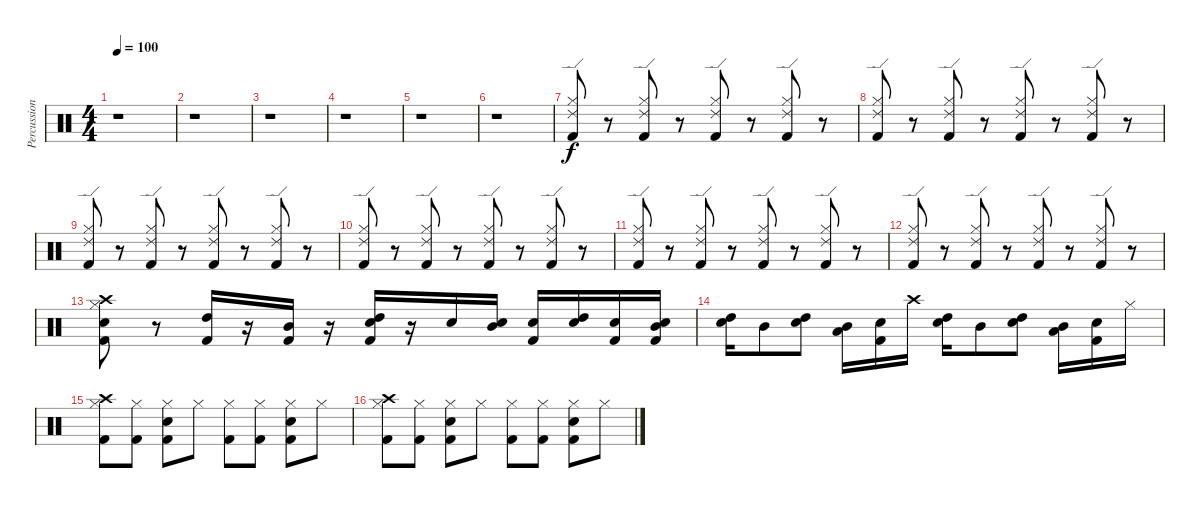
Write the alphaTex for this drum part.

\track ("Percussion" "Percussion") {instrument percussion}
\staff {score}
\articulation defaults
\ts (4 4)
\tempo 100
\clef neutral
\ks c
r.1{dy f} |
r.1 |
r.1 |
r.1 |
r.1 |
r.1 |
("Kick (hit) 2" "Hi-Hat (closed)" "Ride (edge) 2").8 r.8 ("Kick (hit) 2" "Hi-Hat (closed)" "Ride (edge) 2").8 r.8 ("Kick (hit) 2" "Hi-Hat (closed)" "Ride (edge) 2").8 r.8 ("Kick (hit) 2" "Hi-Hat (closed)" "Ride (edge) 2").8 r.8 |
("Kick (hit) 2" "Hi-Hat (closed)" "Ride (edge) 2").8 r.8 ("Kick (hit) 2" "Hi-Hat (closed)" "Ride (edge) 2").8 r.8 ("Kick (hit) 2" "Hi-Hat (closed)" "Ride (edge) 2").8 r.8 ("Kick (hit) 2" "Hi-Hat (closed)" "Ride (edge) 2").8 r.8 |
("Kick (hit) 2" "Hi-Hat (closed)" "Ride (edge) 2").8 r.8 ("Kick (hit) 2" "Hi-Hat (closed)" "Ride (edge) 2").8 r.8 ("Kick (hit) 2" "Hi-Hat (closed)" "Ride (edge) 2").8 r.8 ("Kick (hit) 2" "Hi-Hat (closed)" "Ride (edge) 2").8 r.8 |
("Kick (hit) 2" "Hi-Hat (closed)" "Ride (edge) 2").8 r.8 ("Kick (hit) 2" "Hi-Hat (closed)" "Ride (edge) 2").8 r.8 ("Kick (hit) 2" "Hi-Hat (closed)" "Ride (edge) 2").8 r.8 ("Kick (hit) 2" "Hi-Hat (closed)" "Ride (edge) 2").8 r.8 |
("Kick (hit) 2" "Hi-Hat (closed)" "Ride (edge) 2").8 r.8 ("Kick (hit) 2" "Hi-Hat (closed)" "Ride (edge) 2").8 r.8 ("Kick (hit) 2" "Hi-Hat (closed)" "Ride (edge) 2").8 r.8 ("Kick (hit) 2" "Hi-Hat (closed)" "Ride (edge) 2").8 r.8 |
("Kick (hit) 2" "Hi-Hat (closed)" "Ride (edge) 2").8 r.8 ("Kick (hit) 2" "Hi-Hat (closed)" "Ride (edge) 2").8 r.8 ("Kick (hit) 2" "Hi-Hat (closed)" "Ride (edge) 2").8 r.8 ("Kick (hit) 2" "Hi-Hat (closed)" "Ride (edge) 2").8 r.8 |
("Kick (hit) 2" "Snare (hit) 2" "Hi-Hat (closed)" "Crash high (hit)").8 r.8 ("Kick (hit) 2" "High Tom (hit)").16 r.16 ("Kick (hit) 2" "Mid Tom (hit)").16 r.16 ("Kick (hit) 2" "Snare (hit) 2" "High Tom (hit)").16 r.16 "Snare (hit) 2".16 ("Snare (hit) 2" "Mid Tom (hit)").16 ("Kick (hit) 2" "Snare (hit) 2").16 ("Snare (hit) 2" "High Tom (hit)").16 ("Kick (hit) 2" "Snare (hit) 2").16 ("Kick (hit) 2" "Snare (hit) 2" "Mid Tom (hit)").16 |
("High Tom (hit)" "Snare (hit) 2").16 "Mid Tom (hit)".8 ("High Tom (hit)" "Snare (hit) 2").8 ("Mid Tom (hit)" "Low Floor Tom (hit)").16 ("Kick (hit) 2" "Snare (hit) 2").16 "Crash high (hit)".16 ("High Tom (hit)" "Snare (hit) 2").16 "Mid Tom (hit)".8 ("High Tom (hit)" "Snare (hit) 2").8 ("Mid Tom (hit)" "Low Floor Tom (hit)").16 ("Kick (hit) 2" "Snare (hit) 2").16 "Hi-Hat (closed)".16 |
("Kick (hit) 2" "Hi-Hat (closed)" "Crash high (hit)").8 ("Kick (hit) 2" "Hi-Hat (closed)").8 ("Kick (hit) 2" "Snare (hit) 2" "Hi-Hat (closed)").8 "Hi-Hat (closed)".8 ("Kick (hit) 2" "Hi-Hat (closed)").8 ("Kick (hit) 2" "Hi-Hat (closed)").8 ("Kick (hit) 2" "Snare (hit) 2" "Hi-Hat (closed)").8 "Hi-Hat (closed)".8 |
("Kick (hit) 2" "Hi-Hat (closed)" "Crash high (hit)").8 ("Kick (hit) 2" "Hi-Hat (closed)").8 ("Kick (hit) 2" "Snare (hit) 2" "Hi-Hat (closed)").8 "Hi-Hat (closed)".8 ("Kick (hit) 2" "Hi-Hat (closed)").8 ("Kick (hit) 2" "Hi-Hat (closed)").8 ("Kick (hit) 2" "Snare (hit) 2" "Hi-Hat (closed)").8 "Hi-Hat (closed)".8
